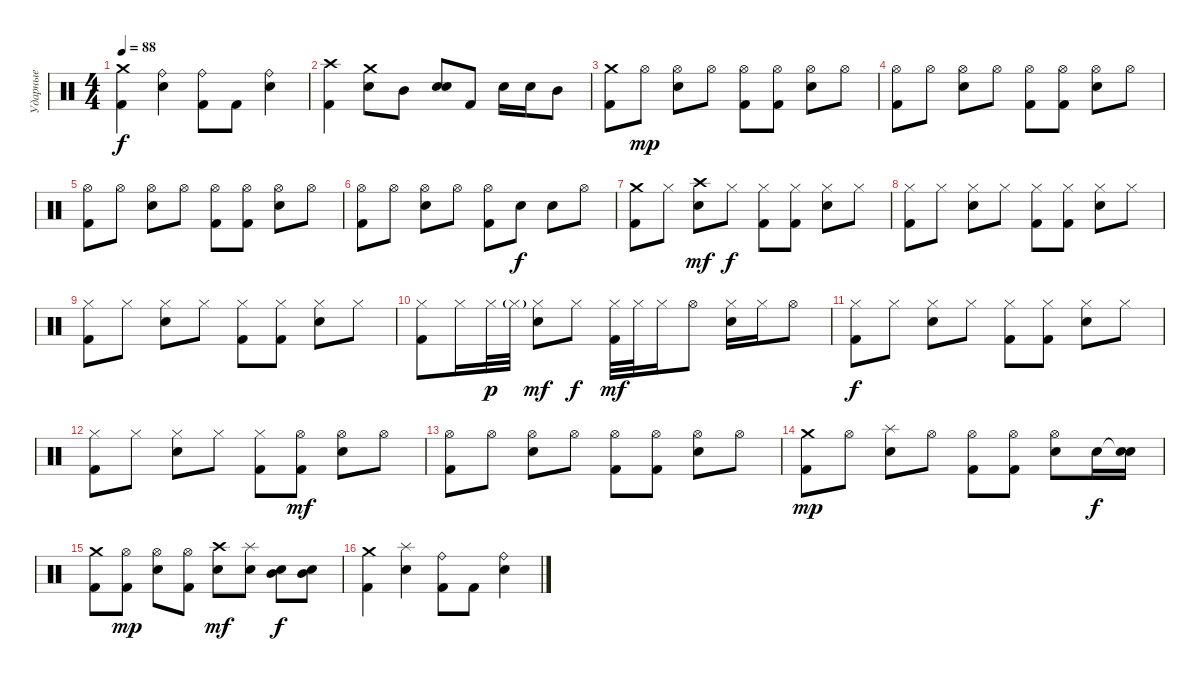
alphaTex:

\track ("Ударные" "Ударные") {instrument percussion}
\staff {score}
\articulation defaults
\ts (4 4)
\tempo 88
\clef neutral
\ks c
("Crash medium (hit)" "Kick (hit) 2").4{dy f} ("Ride (bell)" "Electric Snare (hit)").4 ("Ride (bell)" "Kick (hit) 2").8 "Kick (hit) 2".8 ("Ride (bell)" "Electric Snare (hit)").4 |
("Crash high (hit)" "Kick (hit) 2").4 ("Crash medium (hit)" "Electric Snare (hit)").8 "Mid Tom (hit)".8 ("Electric Snare (hit)" "Electric Snare (hit)").8{bu 120} "Kick (hit) 2".8 "Electric Snare (hit)".16 "Electric Snare (hit)".16 "Mid Tom (hit)".8 |
("Crash medium (hit)" "Kick (hit) 2").8 "Hi-Hat (open)".8{dy mp} ("Hi-Hat (open)" "Electric Snare (hit)").8 "Hi-Hat (open)".8 ("Hi-Hat (open)" "Kick (hit) 2").8 ("Hi-Hat (open)" "Kick (hit) 2").8 ("Hi-Hat (open)" "Electric Snare (hit)").8 "Hi-Hat (open)".8 |
("Hi-Hat (open)" "Kick (hit) 2").8 "Hi-Hat (open)".8 ("Hi-Hat (open)" "Electric Snare (hit)").8 "Hi-Hat (open)".8 ("Hi-Hat (open)" "Kick (hit) 2").8 ("Hi-Hat (open)" "Kick (hit) 2").8 ("Hi-Hat (open)" "Electric Snare (hit)").8 "Hi-Hat (open)".8 |
("Hi-Hat (open)" "Kick (hit) 2").8 "Hi-Hat (open)".8 ("Hi-Hat (open)" "Electric Snare (hit)").8 "Hi-Hat (open)".8 ("Hi-Hat (open)" "Kick (hit) 2").8 ("Hi-Hat (open)" "Kick (hit) 2").8 ("Hi-Hat (open)" "Electric Snare (hit)").8 "Hi-Hat (open)".8 |
("Hi-Hat (open)" "Kick (hit) 2").8 "Hi-Hat (open)".8 ("Hi-Hat (open)" "Electric Snare (hit)").8 "Hi-Hat (open)".8 ("Hi-Hat (open)" "Kick (hit) 2").8 "Electric Snare (hit)".8{dy f} "Electric Snare (hit)".8 "Hi-Hat (open)".8 |
("Crash medium (hit)" "Kick (hit) 2").8 "Hi-Hat (closed)".8 ("Crash high (hit)" "Electric Snare (hit)").8{dy mf} "Hi-Hat (closed)".8{dy f} ("Hi-Hat (closed)" "Kick (hit) 2").8 ("Hi-Hat (closed)" "Kick (hit) 2").8 ("Hi-Hat (closed)" "Electric Snare (hit)").8 "Hi-Hat (closed)".8 |
("Hi-Hat (closed)" "Kick (hit) 2").8 "Hi-Hat (closed)".8 ("Hi-Hat (closed)" "Electric Snare (hit)").8 "Hi-Hat (closed)".8 ("Hi-Hat (closed)" "Kick (hit) 2").8 ("Hi-Hat (closed)" "Kick (hit) 2").8 ("Hi-Hat (closed)" "Electric Snare (hit)").8 "Hi-Hat (closed)".8 |
("Hi-Hat (closed)" "Kick (hit) 2").8 "Hi-Hat (closed)".8 ("Hi-Hat (closed)" "Electric Snare (hit)").8 "Hi-Hat (closed)".8 ("Hi-Hat (closed)" "Kick (hit) 2").8 ("Hi-Hat (closed)" "Kick (hit) 2").8 ("Hi-Hat (closed)" "Electric Snare (hit)").8 "Hi-Hat (closed)".8 |
("Hi-Hat (closed)" "Kick (hit) 2").8 "Hi-Hat (closed)".16 "Hi-Hat (closed)".32{dy p} "Hi-Hat (closed)"{g}.32 ("Hi-Hat (closed)" "Electric Snare (hit)").8{dy mf} "Hi-Hat (closed)".8{dy f} ("Hi-Hat (closed)" "Kick (hit) 2").32{dy mf} "Hi-Hat (closed)".32 "Hi-Hat (closed)".16 "Hi-Hat (open)".8 ("Hi-Hat (closed)" "Electric Snare (hit)").16 "Hi-Hat (closed)".16 "Hi-Hat (open)".8 |
("Hi-Hat (closed)" "Kick (hit) 2").8{dy f} "Hi-Hat (closed)".8 ("Hi-Hat (closed)" "Electric Snare (hit)").8 "Hi-Hat (closed)".8 ("Hi-Hat (closed)" "Kick (hit) 2").8 ("Hi-Hat (closed)" "Kick (hit) 2").8 ("Hi-Hat (closed)" "Electric Snare (hit)").8 "Hi-Hat (closed)".8 |
("Hi-Hat (closed)" "Kick (hit) 2").8 "Hi-Hat (closed)".8 ("Hi-Hat (closed)" "Electric Snare (hit)").8 "Hi-Hat (closed)".8 ("Hi-Hat (closed)" "Kick (hit) 2").8 ("Hi-Hat (open)" "Kick (hit) 2").8{dy mf} ("Hi-Hat (open)" "Electric Snare (hit)").8 "Hi-Hat (open)".8 |
("Hi-Hat (open)" "Kick (hit) 2").8 "Hi-Hat (open)".8 ("Hi-Hat (open)" "Electric Snare (hit)").8 "Hi-Hat (open)".8 ("Hi-Hat (open)" "Kick (hit) 2").8 ("Hi-Hat (open)" "Kick (hit) 2").8 ("Hi-Hat (open)" "Electric Snare (hit)").8 "Hi-Hat (open)".8 |
("Crash medium (hit)" "Kick (hit) 2").8{dy mp} "Hi-Hat (open)".8 ("Splash (hit)" "Electric Snare (hit)").8 "Hi-Hat (open)".8 ("Hi-Hat (open)" "Kick (hit) 2").8 ("Hi-Hat (open)" "Kick (hit) 2").8 ("Hi-Hat (open)" "Electric Snare (hit)").8 "Electric Snare (hit)".16{dy f} ("Snare (hit)"{t} "Electric Snare (hit)").16 |
("Crash medium (hit)" "Kick (hit) 2").8 ("Hi-Hat (open)" "Kick (hit) 2").8{dy mp} ("Hi-Hat (open)" "Electric Snare (hit)").8 ("Hi-Hat (open)" "Kick (hit) 2").8 ("Crash high (hit)" "Electric Snare (hit)").8{dy mf} ("Splash (hit)" "Electric Snare (hit)").8 ("Mid Tom (hit)" "Electric Snare (hit)").8{dy f} ("Mid Tom (hit)" "Electric Snare (hit)").8 |
("Crash medium (hit)" "Kick (hit) 2").4 ("Splash (hit)" "Electric Snare (hit)").4 ("Ride (bell)" "Kick (hit) 2").8 "Kick (hit) 2".8 ("Ride (bell)" "Electric Snare (hit)").4
